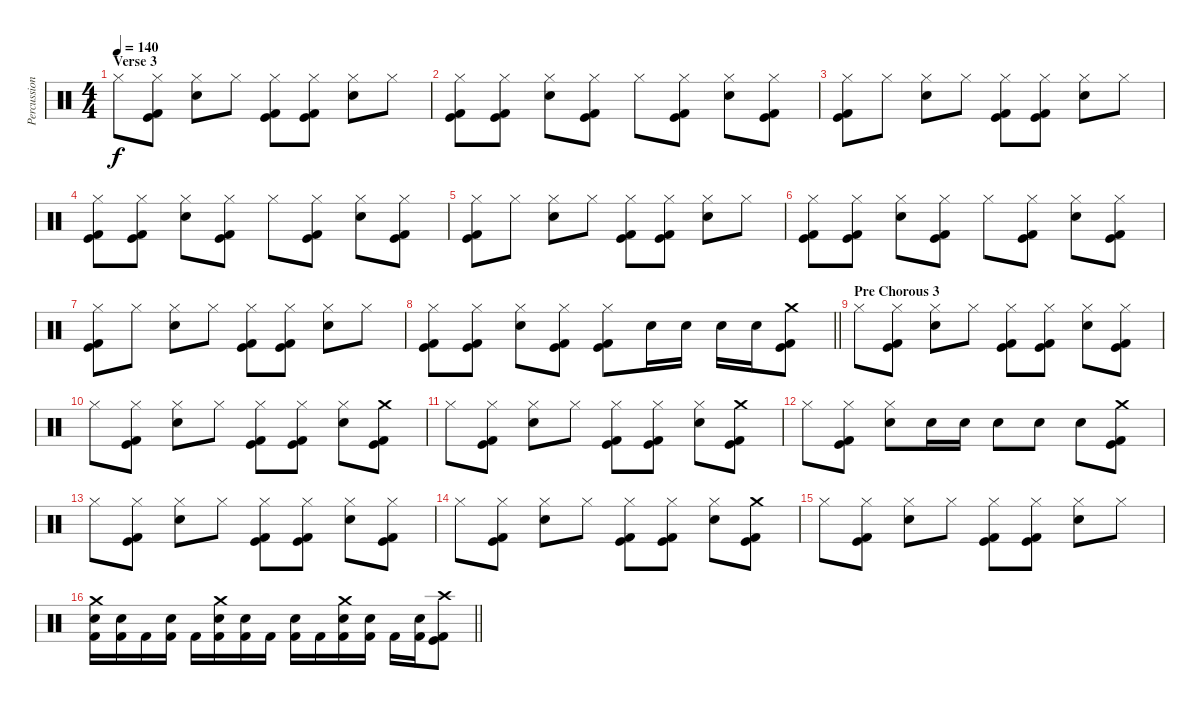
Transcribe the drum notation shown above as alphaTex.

\track ("Percussion" "Percussion") {instrument percussion}
\staff {score}
\articulation defaults
\ts (4 4)
\section ("" "Verse 3")
\tempo 140
\clef neutral
\ks c "Hi-Hat (closed)".8{dy f}
("Hi-Hat (closed)" "Kick (hit)" "Kick (hit) 2").8 ("Hi-Hat (closed)" "Electric Snare (hit)").8 "Hi-Hat (closed)".8 ("Hi-Hat (closed)" "Kick (hit)" "Kick (hit) 2").8 ("Hi-Hat (closed)" "Kick (hit)" "Kick (hit) 2").8 ("Hi-Hat (closed)" "Electric Snare (hit)").8 "Hi-Hat (closed)".8 |
("Hi-Hat (closed)" "Kick (hit)" "Kick (hit) 2").8 ("Hi-Hat (closed)" "Kick (hit)" "Kick (hit) 2").8 ("Hi-Hat (closed)" "Electric Snare (hit)").8 ("Hi-Hat (closed)" "Kick (hit)" "Kick (hit) 2").8 "Hi-Hat (closed)".8 ("Hi-Hat (closed)" "Kick (hit)" "Kick (hit) 2").8 ("Hi-Hat (closed)" "Electric Snare (hit)").8 ("Hi-Hat (closed)" "Kick (hit)" "Kick (hit) 2").8 |
("Hi-Hat (closed)" "Kick (hit)" "Kick (hit) 2").8 "Hi-Hat (closed)".8 ("Hi-Hat (closed)" "Electric Snare (hit)").8 "Hi-Hat (closed)".8 ("Hi-Hat (closed)" "Kick (hit)" "Kick (hit) 2").8 ("Hi-Hat (closed)" "Kick (hit)" "Kick (hit) 2").8 ("Hi-Hat (closed)" "Electric Snare (hit)").8 "Hi-Hat (closed)".8 |
("Hi-Hat (closed)" "Kick (hit)" "Kick (hit) 2").8 ("Hi-Hat (closed)" "Kick (hit)" "Kick (hit) 2").8 ("Hi-Hat (closed)" "Electric Snare (hit)").8 ("Hi-Hat (closed)" "Kick (hit)" "Kick (hit) 2").8 "Hi-Hat (closed)".8 ("Hi-Hat (closed)" "Kick (hit)" "Kick (hit) 2").8 ("Hi-Hat (closed)" "Electric Snare (hit)").8 ("Hi-Hat (closed)" "Kick (hit)" "Kick (hit) 2").8 |
("Hi-Hat (closed)" "Kick (hit)" "Kick (hit) 2").8 "Hi-Hat (closed)".8 ("Hi-Hat (closed)" "Electric Snare (hit)").8 "Hi-Hat (closed)".8 ("Hi-Hat (closed)" "Kick (hit)" "Kick (hit) 2").8 ("Hi-Hat (closed)" "Kick (hit)" "Kick (hit) 2").8 ("Hi-Hat (closed)" "Electric Snare (hit)").8 "Hi-Hat (closed)".8 |
("Hi-Hat (closed)" "Kick (hit)" "Kick (hit) 2").8 ("Hi-Hat (closed)" "Kick (hit)" "Kick (hit) 2").8 ("Hi-Hat (closed)" "Electric Snare (hit)").8 ("Hi-Hat (closed)" "Kick (hit)" "Kick (hit) 2").8 "Hi-Hat (closed)".8 ("Hi-Hat (closed)" "Kick (hit)" "Kick (hit) 2").8 ("Hi-Hat (closed)" "Electric Snare (hit)").8 ("Hi-Hat (closed)" "Kick (hit)" "Kick (hit) 2").8 |
("Hi-Hat (closed)" "Kick (hit)" "Kick (hit) 2").8 "Hi-Hat (closed)".8 ("Hi-Hat (closed)" "Electric Snare (hit)").8 "Hi-Hat (closed)".8 ("Hi-Hat (closed)" "Kick (hit)" "Kick (hit) 2").8 ("Hi-Hat (closed)" "Kick (hit)" "Kick (hit) 2").8 ("Hi-Hat (closed)" "Electric Snare (hit)").8 "Hi-Hat (closed)".8 |
\barLineRight lightlight
("Hi-Hat (closed)" "Kick (hit)" "Kick (hit) 2").8 ("Hi-Hat (closed)" "Kick (hit)" "Kick (hit) 2").8 ("Hi-Hat (closed)" "Electric Snare (hit)").8 ("Hi-Hat (closed)" "Kick (hit)" "Kick (hit) 2").8 ("Hi-Hat (closed)" "Kick (hit)" "Kick (hit) 2").8 "Electric Snare (hit)".16 "Electric Snare (hit)".16 "Electric Snare (hit)".16 "Electric Snare (hit)".16 ("Crash medium (hit)" "Kick (hit)" "Kick (hit) 2").8 |
\section ("" "Pre Chorous 3")
"Hi-Hat (closed)".8 ("Hi-Hat (closed)" "Kick (hit)" "Kick (hit) 2").8 ("Hi-Hat (closed)" "Electric Snare (hit)").8 "Hi-Hat (closed)".8 ("Hi-Hat (closed)" "Kick (hit)" "Kick (hit) 2").8 ("Hi-Hat (closed)" "Kick (hit)" "Kick (hit) 2").8 ("Hi-Hat (closed)" "Electric Snare (hit)").8 ("Hi-Hat (closed)" "Kick (hit)" "Kick (hit) 2").8 |
"Hi-Hat (closed)".8 ("Hi-Hat (closed)" "Kick (hit)" "Kick (hit) 2").8 ("Hi-Hat (closed)" "Electric Snare (hit)").8 "Hi-Hat (closed)".8 ("Hi-Hat (closed)" "Kick (hit)" "Kick (hit) 2").8 ("Hi-Hat (closed)" "Kick (hit)" "Kick (hit) 2").8 ("Hi-Hat (closed)" "Electric Snare (hit)").8 ("Crash medium (hit)" "Kick (hit)" "Kick (hit) 2").8 |
"Hi-Hat (closed)".8 ("Hi-Hat (closed)" "Kick (hit)" "Kick (hit) 2").8 ("Hi-Hat (closed)" "Electric Snare (hit)").8 "Hi-Hat (closed)".8 ("Hi-Hat (closed)" "Kick (hit)" "Kick (hit) 2").8 ("Hi-Hat (closed)" "Kick (hit)" "Kick (hit) 2").8 ("Hi-Hat (closed)" "Electric Snare (hit)").8 ("Crash medium (hit)" "Kick (hit)" "Kick (hit) 2").8 |
"Hi-Hat (closed)".8 ("Hi-Hat (closed)" "Kick (hit)" "Kick (hit) 2").8 ("Hi-Hat (closed)" "Electric Snare (hit)").8 "Electric Snare (hit)".16 "Electric Snare (hit)".16 "Electric Snare (hit)".8 "Electric Snare (hit)".8 "Electric Snare (hit)".8 ("Crash medium (hit)" "Kick (hit)" "Kick (hit) 2").8 |
"Hi-Hat (closed)".8 ("Hi-Hat (closed)" "Kick (hit)" "Kick (hit) 2").8 ("Hi-Hat (closed)" "Electric Snare (hit)").8 "Hi-Hat (closed)".8 ("Hi-Hat (closed)" "Kick (hit)" "Kick (hit) 2").8 ("Hi-Hat (closed)" "Kick (hit)" "Kick (hit) 2").8 ("Hi-Hat (closed)" "Electric Snare (hit)").8 ("Hi-Hat (closed)" "Kick (hit)" "Kick (hit) 2").8 |
"Hi-Hat (closed)".8 ("Hi-Hat (closed)" "Kick (hit)" "Kick (hit) 2").8 ("Hi-Hat (closed)" "Electric Snare (hit)").8 "Hi-Hat (closed)".8 ("Hi-Hat (closed)" "Kick (hit)" "Kick (hit) 2").8 ("Hi-Hat (closed)" "Kick (hit)" "Kick (hit) 2").8 ("Hi-Hat (closed)" "Electric Snare (hit)").8 ("Crash medium (hit)" "Kick (hit)" "Kick (hit) 2").8 |
"Hi-Hat (closed)".8 ("Hi-Hat (closed)" "Kick (hit)" "Kick (hit) 2").8 ("Hi-Hat (closed)" "Electric Snare (hit)").8 "Hi-Hat (closed)".8 ("Hi-Hat (closed)" "Kick (hit)" "Kick (hit) 2").8 ("Hi-Hat (closed)" "Kick (hit)" "Kick (hit) 2").8 ("Hi-Hat (closed)" "Electric Snare (hit)").8 "Hi-Hat (closed)".8 |
\barLineRight lightlight
("Crash medium (hit)" "Electric Snare (hit)" "Kick (hit) 2").16 ("Electric Snare (hit)" "Kick (hit) 2").16 "Kick (hit) 2".16 ("Electric Snare (hit)" "Kick (hit) 2").16 "Kick (hit) 2".16 ("Crash medium (hit)" "Electric Snare (hit)" "Kick (hit) 2").16 ("Electric Snare (hit)" "Kick (hit) 2").16 "Kick (hit) 2".16 ("Electric Snare (hit)" "Kick (hit) 2").16 "Kick (hit) 2".16 ("Crash medium (hit)" "Electric Snare (hit)" "Kick (hit) 2").16 ("Electric Snare (hit)" "Kick (hit) 2").16 "Kick (hit) 2".16 ("Electric Snare (hit)" "Kick (hit) 2").16 ("Crash high (hit)" "Kick (hit)" "Kick (hit) 2").8
